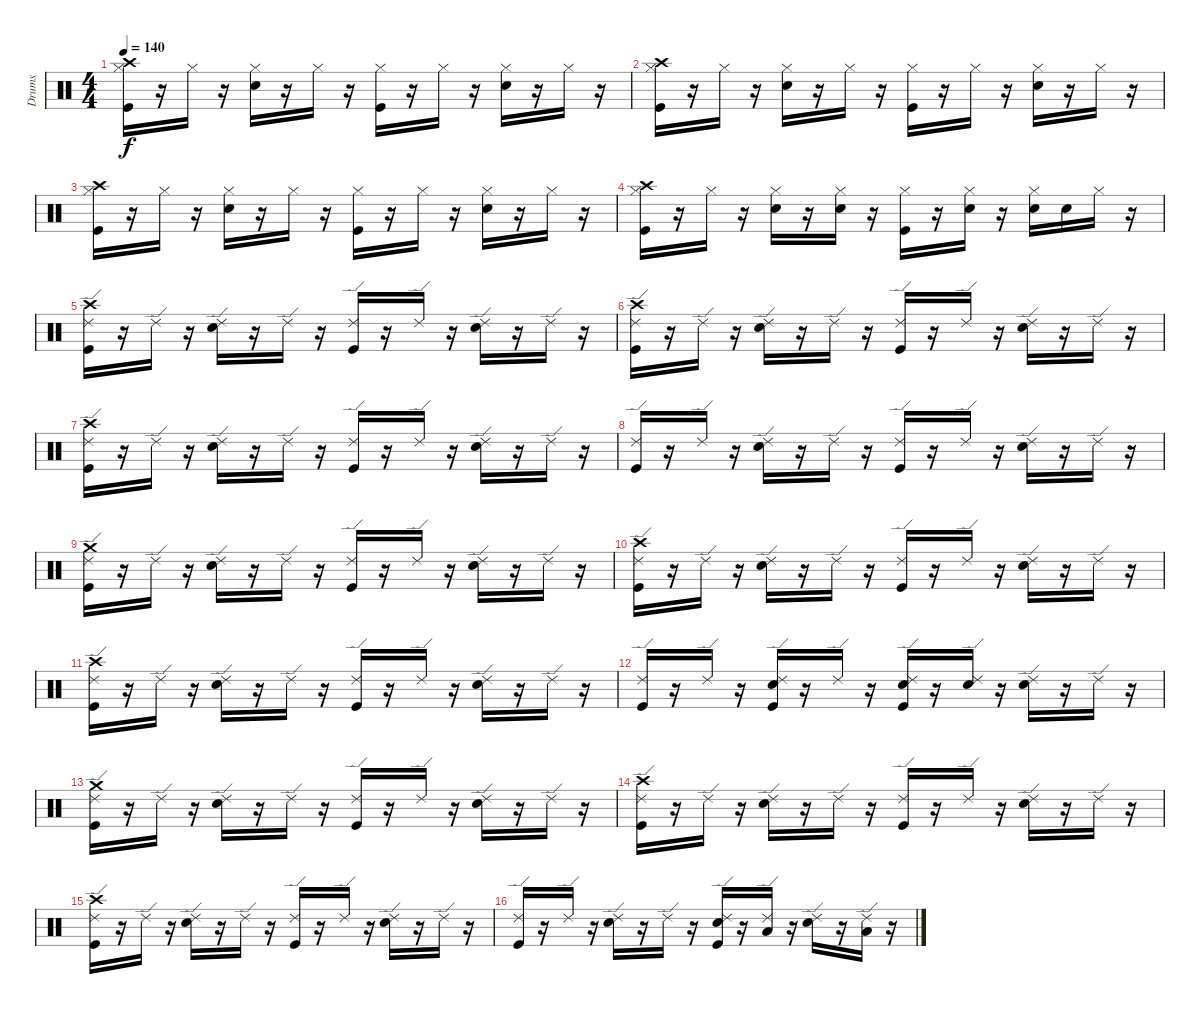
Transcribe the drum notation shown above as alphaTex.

\track ("Drums" "Drums") {instrument percussion}
\staff {score}
\articulation defaults
\ts (4 4)
\tempo 140
\clef neutral
\ks c
("Crash high (hit)" "Kick (hit)" "Hi-Hat (closed)").16{dy f} r.16 "Hi-Hat (closed)".16 r.16 ("Snare (hit) 2" "Hi-Hat (closed)").16 r.16 "Hi-Hat (closed)".16 r.16 ("Hi-Hat (closed)" "Kick (hit)").16 r.16 "Hi-Hat (closed)".16 r.16 ("Hi-Hat (closed)" "Snare (hit) 2").16 r.16 "Hi-Hat (closed)".16 r.16 |
("Hi-Hat (closed)" "Crash high (hit)" "Kick (hit)").16 r.16 "Hi-Hat (closed)".16 r.16 ("Snare (hit) 2" "Hi-Hat (closed)").16 r.16 "Hi-Hat (closed)".16 r.16 ("Kick (hit)" "Hi-Hat (closed)").16 r.16 "Hi-Hat (closed)".16 r.16 ("Snare (hit) 2" "Hi-Hat (closed)").16 r.16 "Hi-Hat (closed)".16 r.16 |
("Crash high (hit)" "Kick (hit)" "Hi-Hat (closed)").16 r.16 "Hi-Hat (closed)".16 r.16 ("Hi-Hat (closed)" "Snare (hit) 2").16 r.16 "Hi-Hat (closed)".16 r.16 ("Hi-Hat (closed)" "Kick (hit)").16 r.16 "Hi-Hat (closed)".16 r.16 ("Hi-Hat (closed)" "Snare (hit) 2").16 r.16 "Hi-Hat (closed)".16 r.16 |
("Crash high (hit)" "Hi-Hat (closed)" "Kick (hit)").16 r.16 "Hi-Hat (closed)".16 r.16 ("Hi-Hat (closed)" "Snare (hit) 2").16 r.16 ("Hi-Hat (closed)" "Snare (hit) 2").16 r.16 ("Kick (hit)" "Hi-Hat (closed)").16 r.16 ("Hi-Hat (closed)" "Snare (hit) 2").16 r.16 ("Hi-Hat (closed)" "Snare (hit) 2").16 "Snare (hit) 2".16 "Hi-Hat (closed)".16 r.16 |
("Ride (edge) 2" "Crash high (hit)" "Kick (hit)").16 r.16 "Ride (edge) 2".16 r.16 ("Ride (edge) 2" "Snare (hit) 2").16 r.16 "Ride (edge) 2".16 r.16 ("Ride (edge) 2" "Kick (hit)").16 r.16 "Ride (edge) 2".16 r.16 ("Ride (edge) 2" "Snare (hit) 2").16 r.16 "Ride (edge) 2".16 r.16 |
("Crash high (hit)" "Ride (edge) 2" "Kick (hit)").16 r.16 "Ride (edge) 2".16 r.16 ("Ride (edge) 2" "Snare (hit) 2").16 r.16 "Ride (edge) 2".16 r.16 ("Ride (edge) 2" "Kick (hit)").16 r.16 "Ride (edge) 2".16 r.16 ("Ride (edge) 2" "Snare (hit) 2").16 r.16 "Ride (edge) 2".16 r.16 |
("Crash high (hit)" "Ride (edge) 2" "Kick (hit)").16 r.16 "Ride (edge) 2".16 r.16 ("Snare (hit) 2" "Ride (edge) 2").16 r.16 "Ride (edge) 2".16 r.16 ("Kick (hit)" "Ride (edge) 2").16 r.16 "Ride (edge) 2".16 r.16 ("Ride (edge) 2" "Snare (hit) 2").16 r.16 "Ride (edge) 2".16 r.16 |
("Ride (edge) 2" "Kick (hit)").16 r.16 "Ride (edge) 2".16 r.16 ("Snare (hit) 2" "Ride (edge) 2").16 r.16 "Ride (edge) 2".16 r.16 ("Kick (hit)" "Ride (edge) 2").16 r.16 "Ride (edge) 2".16 r.16 ("Snare (hit) 2" "Ride (edge) 2").16 r.16 "Ride (edge) 2".16 r.16 |
("Kick (hit)" "Ride (edge) 2" "Crash medium (hit)").16 r.16 "Ride (edge) 2".16 r.16 ("Snare (hit) 2" "Ride (edge) 2").16 r.16 "Ride (edge) 2".16 r.16 ("Kick (hit)" "Ride (edge) 2").16 r.16 "Ride (edge) 2".16 r.16 ("Ride (edge) 2" "Snare (hit) 2").16 r.16 "Ride (edge) 2".16 r.16 |
("Crash high (hit)" "Ride (edge) 2" "Kick (hit)").16 r.16 "Ride (edge) 2".16 r.16 ("Ride (edge) 2" "Snare (hit) 2").16 r.16 "Ride (edge) 2".16 r.16 ("Ride (edge) 2" "Kick (hit)").16 r.16 "Ride (edge) 2".16 r.16 ("Ride (edge) 2" "Snare (hit) 2").16 r.16 "Ride (edge) 2".16 r.16 |
("Crash high (hit)" "Ride (edge) 2" "Kick (hit)").16 r.16 "Ride (edge) 2".16 r.16 ("Ride (edge) 2" "Snare (hit) 2").16 r.16 "Ride (edge) 2".16 r.16 ("Ride (edge) 2" "Kick (hit)").16 r.16 "Ride (edge) 2".16 r.16 ("Ride (edge) 2" "Snare (hit) 2").16 r.16 "Ride (edge) 2".16 r.16 |
("Ride (edge) 2" "Kick (hit)").16 r.16 "Ride (edge) 2".16 r.16 ("Ride (edge) 2" "Snare (hit) 2" "Kick (hit)").16 r.16 "Ride (edge) 2".16 r.16 ("Kick (hit)" "Ride (edge) 2" "Snare (hit) 2").16 r.16 ("Ride (edge) 2" "Snare (hit) 2").16 r.16 ("Ride (edge) 2" "Snare (hit) 2").16 r.16 "Ride (edge) 2".16 r.16 |
("Crash medium (hit)" "Kick (hit)" "Ride (edge) 2").16 r.16 "Ride (edge) 2".16 r.16 ("Ride (edge) 2" "Snare (hit) 2").16 r.16 "Ride (edge) 2".16 r.16 ("Ride (edge) 2" "Kick (hit)").16 r.16 "Ride (edge) 2".16 r.16 ("Ride (edge) 2" "Snare (hit) 2").16 r.16 "Ride (edge) 2".16 r.16 |
("Crash high (hit)" "Ride (edge) 2" "Kick (hit)").16 r.16 "Ride (edge) 2".16 r.16 ("Ride (edge) 2" "Snare (hit) 2").16 r.16 "Ride (edge) 2".16 r.16 ("Ride (edge) 2" "Kick (hit)").16 r.16 "Ride (edge) 2".16 r.16 ("Ride (edge) 2" "Snare (hit) 2").16 r.16 "Ride (edge) 2".16 r.16 |
("Ride (edge) 2" "Crash high (hit)" "Kick (hit)").16 r.16 "Ride (edge) 2".16 r.16 ("Ride (edge) 2" "Snare (hit) 2").16 r.16 "Ride (edge) 2".16 r.16 ("Ride (edge) 2" "Kick (hit)").16 r.16 "Ride (edge) 2".16 r.16 ("Ride (edge) 2" "Snare (hit) 2").16 r.16 "Ride (edge) 2".16 r.16 |
("Kick (hit)" "Ride (edge) 2").16 r.16 "Ride (edge) 2".16 r.16 ("Snare (hit) 2" "Ride (edge) 2").16 r.16 "Ride (edge) 2".16 r.16 ("Kick (hit)" "Ride (edge) 2" "Snare (hit) 2").16 r.16 ("Ride (edge) 2" "Low Floor Tom (hit)").16 r.16 ("Ride (edge) 2" "Snare (hit) 2").16 r.16 ("Ride (edge) 2" "Low Floor Tom (hit)").16 r.16
